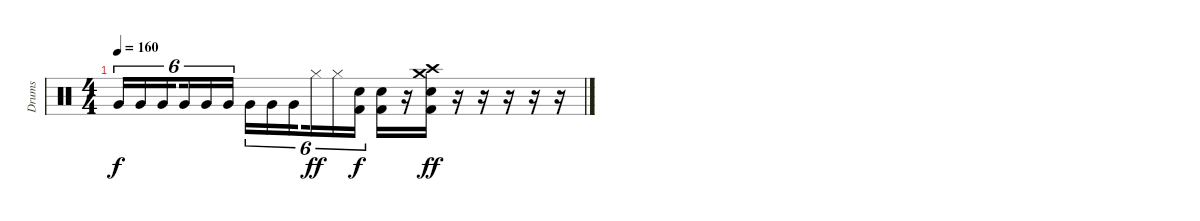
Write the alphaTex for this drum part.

\track ("Drums" "Drums") {instrument percussion}
\staff {score}
\articulation defaults
\ts (4 4)
\tempo 160
\clef neutral
\ks c "Very Low Tom (hit)".16{tu (6 4) dy f} "Very Low Tom (hit)".16{tu (6 4)} "Very Low Tom (hit)".16{tu (6 4) beam splitsecondary} "Very Low Tom (hit)".16{tu (6 4)} "Very Low Tom (hit)".16{tu (6 4)} "Very Low Tom (hit)".16{tu (6 4)} "Very Low Tom (hit)".16{tu (6 4)} "Very Low Tom (hit)".16{tu (6 4)} "Very Low Tom (hit)".16{tu (6 4) beam splitsecondary} "Hi-Hat (closed)".16{tu (6 4) dy ff} "Hi-Hat (closed)".16{tu (6 4)}
("Electric Snare (hit)" "Kick (hit) 2").16{tu (6 4) dy f} ("Electric Snare (hit)" "Kick (hit) 2").16 r.16 ("Crash medium (hit)" "Crash high (hit)" "Electric Snare (hit)" "Kick (hit) 2").16{dy ff} r.16 r.16 r.16 r.16 r.16
